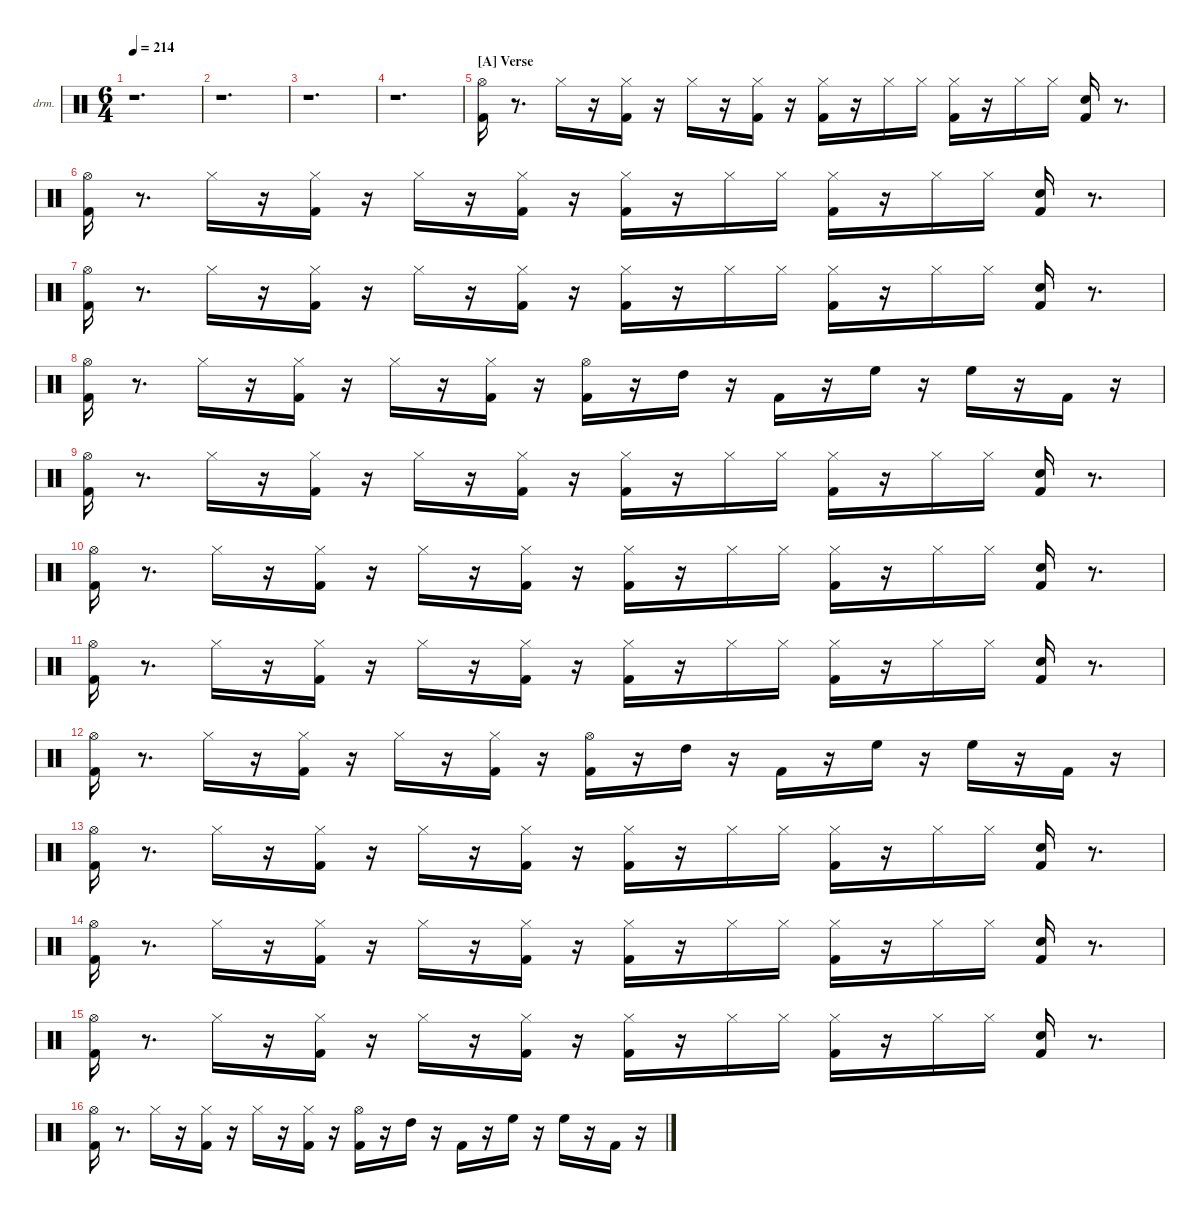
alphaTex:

\hideDynamics
\bracketExtendMode nobrackets
\firstSystemTrackNameOrientation horizontal
\otherSystemsTrackNameOrientation horizontal
\track ("EZdrummer 3" "drm.") {instrument percussion}
\staff {score}
\articulation defaults
\ts (6 4)
\tempo 214
\clef neutral
\ks aminor
r.1{d dy fff} |
r.1{d} |
r.1{d} |
r.1{d} |
\section ("A" "Verse")
("Kick (hit) 2" "Hi-Hat (open)"{acc #}).16 r.8{d} "Hi-Hat (closed)"{acc #}.16{dy f} r.16 ("Kick (hit) 2" "Hi-Hat (closed)"{acc #}).16{dy ff} r.16 "Hi-Hat (closed)"{acc #}.16 r.16 ("Kick (hit) 2" "Hi-Hat (closed)"{acc #}).16 r.16 ("Kick (hit) 2" "Hi-Hat (closed)"{acc #}).16 r.16 "Hi-Hat (closed)"{acc #}.16{dy f} "Hi-Hat (closed)"{acc #}.16{dy mp} ("Kick (hit) 2" "Hi-Hat (closed)"{acc #}).16{dy ff} r.16 "Hi-Hat (closed)"{acc #}.16{dy f} "Hi-Hat (closed)"{acc #}.16{dy mf} ("Kick (hit) 2" "Snare (hit) 2").16{dy ff} r.8{d} |
("Kick (hit) 2" "Hi-Hat (open)"{acc #}).16 r.8{d} "Hi-Hat (closed)"{acc #}.16{dy f} r.16 ("Kick (hit) 2" "Hi-Hat (closed)"{acc #}).16{dy ff} r.16 "Hi-Hat (closed)"{acc #}.16 r.16 ("Kick (hit) 2" "Hi-Hat (closed)"{acc #}).16 r.16 ("Kick (hit) 2" "Hi-Hat (closed)"{acc #}).16 r.16 "Hi-Hat (closed)"{acc #}.16{dy f} "Hi-Hat (closed)"{acc #}.16{dy mp} ("Kick (hit) 2" "Hi-Hat (closed)"{acc #}).16{dy ff} r.16 "Hi-Hat (closed)"{acc #}.16{dy f} "Hi-Hat (closed)"{acc #}.16{dy mf} ("Kick (hit) 2" "Snare (hit) 2").16{dy ff} r.8{d} |
("Kick (hit) 2" "Hi-Hat (open)"{acc #}).16 r.8{d} "Hi-Hat (closed)"{acc #}.16{dy f} r.16 ("Kick (hit) 2" "Hi-Hat (closed)"{acc #}).16{dy ff} r.16 "Hi-Hat (closed)"{acc #}.16 r.16 ("Kick (hit) 2" "Hi-Hat (closed)"{acc #}).16 r.16 ("Kick (hit) 2" "Hi-Hat (closed)"{acc #}).16 r.16 "Hi-Hat (closed)"{acc #}.16{dy f} "Hi-Hat (closed)"{acc #}.16{dy mp} ("Kick (hit) 2" "Hi-Hat (closed)"{acc #}).16{dy ff} r.16 "Hi-Hat (closed)"{acc #}.16{dy f} "Hi-Hat (closed)"{acc #}.16{dy mf} ("Kick (hit) 2" "Snare (hit) 2").16{dy ff} r.8{d} |
("Kick (hit) 2" "Hi-Hat (open)"{acc #}).16 r.8{d} "Hi-Hat (closed)"{acc #}.16{dy f} r.16 ("Kick (hit) 2" "Hi-Hat (closed)"{acc #}).16{dy ff} r.16 "Hi-Hat (closed)"{acc #}.16 r.16 ("Kick (hit) 2" "Hi-Hat (closed)"{acc #}).16 r.16 ("Kick (hit) 2" "Hi-Hat (open)"{acc #}).16 r.16 "High Tom (hit)".16 r.16 "Kick (hit) 2".16 r.16 "High Floor Tom (hit)".16{dy mf} r.16 "High Floor Tom (hit)".16{dy fff} r.16 "Kick (hit) 2".16{dy mf} r.16 |
("Kick (hit) 2" "Hi-Hat (open)"{acc #}).16{dy ff} r.8{d} "Hi-Hat (closed)"{acc #}.16{dy f} r.16 ("Kick (hit) 2" "Hi-Hat (closed)"{acc #}).16{dy ff} r.16 "Hi-Hat (closed)"{acc #}.16 r.16 ("Kick (hit) 2" "Hi-Hat (closed)"{acc #}).16 r.16 ("Kick (hit) 2" "Hi-Hat (closed)"{acc #}).16 r.16 "Hi-Hat (closed)"{acc #}.16{dy f} "Hi-Hat (closed)"{acc #}.16{dy mp} ("Kick (hit) 2" "Hi-Hat (closed)"{acc #}).16{dy ff} r.16 "Hi-Hat (closed)"{acc #}.16{dy f} "Hi-Hat (closed)"{acc #}.16{dy mf} ("Kick (hit) 2" "Snare (hit) 2").16{dy ff} r.8{d} |
("Kick (hit) 2" "Hi-Hat (open)"{acc #}).16 r.8{d} "Hi-Hat (closed)"{acc #}.16{dy f} r.16 ("Kick (hit) 2" "Hi-Hat (closed)"{acc #}).16{dy ff} r.16 "Hi-Hat (closed)"{acc #}.16 r.16 ("Kick (hit) 2" "Hi-Hat (closed)"{acc #}).16 r.16 ("Kick (hit) 2" "Hi-Hat (closed)"{acc #}).16 r.16 "Hi-Hat (closed)"{acc #}.16{dy f} "Hi-Hat (closed)"{acc #}.16{dy mp} ("Kick (hit) 2" "Hi-Hat (closed)"{acc #}).16{dy ff} r.16 "Hi-Hat (closed)"{acc #}.16{dy f} "Hi-Hat (closed)"{acc #}.16{dy mf} ("Kick (hit) 2" "Snare (hit) 2").16{dy ff} r.8{d} |
("Kick (hit) 2" "Hi-Hat (open)"{acc #}).16 r.8{d} "Hi-Hat (closed)"{acc #}.16{dy f} r.16 ("Kick (hit) 2" "Hi-Hat (closed)"{acc #}).16{dy ff} r.16 "Hi-Hat (closed)"{acc #}.16 r.16 ("Kick (hit) 2" "Hi-Hat (closed)"{acc #}).16 r.16 ("Kick (hit) 2" "Hi-Hat (closed)"{acc #}).16 r.16 "Hi-Hat (closed)"{acc #}.16{dy f} "Hi-Hat (closed)"{acc #}.16{dy mp} ("Kick (hit) 2" "Hi-Hat (closed)"{acc #}).16{dy ff} r.16 "Hi-Hat (closed)"{acc #}.16{dy f} "Hi-Hat (closed)"{acc #}.16{dy mf} ("Kick (hit) 2" "Snare (hit) 2").16{dy ff} r.8{d} |
("Kick (hit) 2" "Hi-Hat (open)"{acc #}).16 r.8{d} "Hi-Hat (closed)"{acc #}.16{dy f} r.16 ("Kick (hit) 2" "Hi-Hat (closed)"{acc #}).16{dy ff} r.16 "Hi-Hat (closed)"{acc #}.16 r.16 ("Kick (hit) 2" "Hi-Hat (closed)"{acc #}).16 r.16 ("Kick (hit) 2" "Hi-Hat (open)"{acc #}).16 r.16 "High Tom (hit)".16 r.16 "Kick (hit) 2".16 r.16 "High Floor Tom (hit)".16{dy mf} r.16 "High Floor Tom (hit)".16{dy fff} r.16 "Kick (hit) 2".16{dy mf} r.16 |
("Kick (hit) 2" "Hi-Hat (open)"{acc #}).16{dy ff} r.8{d} "Hi-Hat (closed)"{acc #}.16{dy f} r.16 ("Kick (hit) 2" "Hi-Hat (closed)"{acc #}).16{dy ff} r.16 "Hi-Hat (closed)"{acc #}.16 r.16 ("Kick (hit) 2" "Hi-Hat (closed)"{acc #}).16 r.16 ("Kick (hit) 2" "Hi-Hat (closed)"{acc #}).16 r.16 "Hi-Hat (closed)"{acc #}.16{dy f} "Hi-Hat (closed)"{acc #}.16{dy mp} ("Kick (hit) 2" "Hi-Hat (closed)"{acc #}).16{dy ff} r.16 "Hi-Hat (closed)"{acc #}.16{dy f} "Hi-Hat (closed)"{acc #}.16{dy mf} ("Kick (hit) 2" "Snare (hit) 2").16{dy ff} r.8{d} |
("Kick (hit) 2" "Hi-Hat (open)"{acc #}).16 r.8{d} "Hi-Hat (closed)"{acc #}.16{dy f} r.16 ("Kick (hit) 2" "Hi-Hat (closed)"{acc #}).16{dy ff} r.16 "Hi-Hat (closed)"{acc #}.16 r.16 ("Kick (hit) 2" "Hi-Hat (closed)"{acc #}).16 r.16 ("Kick (hit) 2" "Hi-Hat (closed)"{acc #}).16 r.16 "Hi-Hat (closed)"{acc #}.16{dy f} "Hi-Hat (closed)"{acc #}.16{dy mp} ("Kick (hit) 2" "Hi-Hat (closed)"{acc #}).16{dy ff} r.16 "Hi-Hat (closed)"{acc #}.16{dy f} "Hi-Hat (closed)"{acc #}.16{dy mf} ("Kick (hit) 2" "Snare (hit) 2").16{dy ff} r.8{d} |
("Kick (hit) 2" "Hi-Hat (open)"{acc #}).16 r.8{d} "Hi-Hat (closed)"{acc #}.16{dy f} r.16 ("Kick (hit) 2" "Hi-Hat (closed)"{acc #}).16{dy ff} r.16 "Hi-Hat (closed)"{acc #}.16 r.16 ("Kick (hit) 2" "Hi-Hat (closed)"{acc #}).16 r.16 ("Kick (hit) 2" "Hi-Hat (closed)"{acc #}).16 r.16 "Hi-Hat (closed)"{acc #}.16{dy f} "Hi-Hat (closed)"{acc #}.16{dy mp} ("Kick (hit) 2" "Hi-Hat (closed)"{acc #}).16{dy ff} r.16 "Hi-Hat (closed)"{acc #}.16{dy f} "Hi-Hat (closed)"{acc #}.16{dy mf} ("Kick (hit) 2" "Snare (hit) 2").16{dy ff} r.8{d} |
("Kick (hit) 2" "Hi-Hat (open)"{acc #}).16 r.8{d} "Hi-Hat (closed)"{acc #}.16{dy f} r.16 ("Kick (hit) 2" "Hi-Hat (closed)"{acc #}).16{dy ff} r.16 "Hi-Hat (closed)"{acc #}.16 r.16 ("Kick (hit) 2" "Hi-Hat (closed)"{acc #}).16 r.16 ("Kick (hit) 2" "Hi-Hat (open)"{acc #}).16 r.16 "High Tom (hit)".16 r.16 "Kick (hit) 2".16 r.16 "High Floor Tom (hit)".16{dy mf} r.16 "High Floor Tom (hit)".16{dy fff} r.16 "Kick (hit) 2".16{dy mf} r.16
